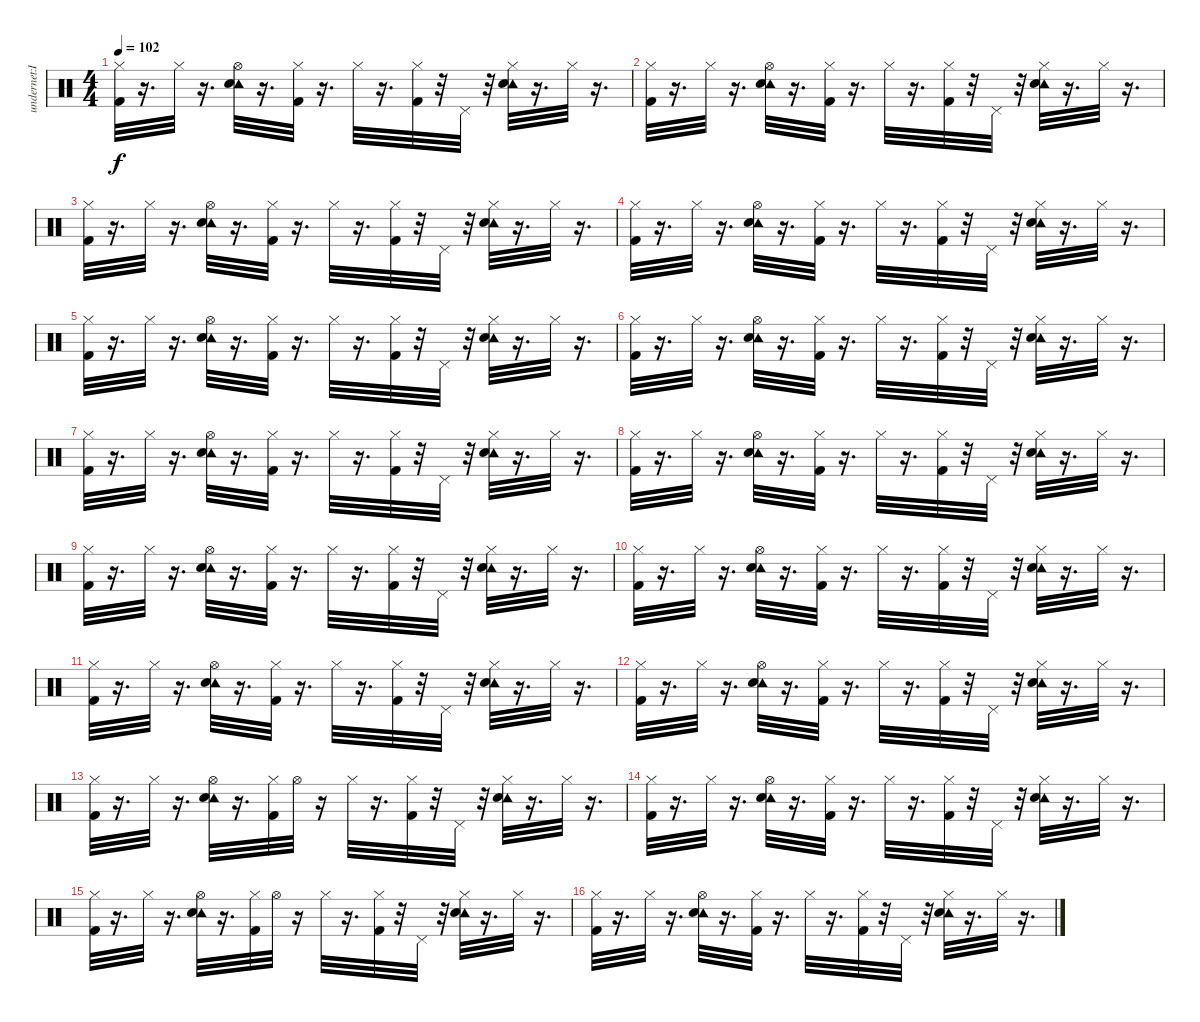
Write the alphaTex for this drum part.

\track ("undernet:IRC:bong21" "undernet:I") {instrument percussion}
\staff {score}
\articulation defaults
\ts (4 4)
\tempo 102
\clef neutral
\ks c
("Hi-Hat (closed)" "Kick (hit) 2").32{dy f} r.16{d} "Hi-Hat (closed)".32 r.16{d} ("Tambourine (hit)" "Hi-Hat (open)" "Electric Snare (hit)").32 r.16{d} ("Hi-Hat (closed)" "Kick (hit) 2").32 r.16{d} "Hi-Hat (closed)".32 r.16{d} ("Hi-Hat (closed)" "Kick (hit) 2").32 r.32 "Pedal Hi-Hat (hit)".32 r.32 ("Tambourine (hit)" "Hi-Hat (closed)" "Electric Snare (hit)").32 r.16{d} "Hi-Hat (closed)".32 r.16{d} |
("Hi-Hat (closed)" "Kick (hit) 2").32 r.16{d} "Hi-Hat (closed)".32 r.16{d} ("Tambourine (hit)" "Hi-Hat (open)" "Electric Snare (hit)").32 r.16{d} ("Hi-Hat (closed)" "Kick (hit) 2").32 r.16{d} "Hi-Hat (closed)".32 r.16{d} ("Hi-Hat (closed)" "Kick (hit) 2").32 r.32 "Pedal Hi-Hat (hit)".32 r.32 ("Tambourine (hit)" "Hi-Hat (closed)" "Electric Snare (hit)").32 r.16{d} "Hi-Hat (closed)".32 r.16{d} |
("Hi-Hat (closed)" "Kick (hit) 2").32 r.16{d} "Hi-Hat (closed)".32 r.16{d} ("Tambourine (hit)" "Hi-Hat (open)" "Electric Snare (hit)").32 r.16{d} ("Hi-Hat (closed)" "Kick (hit) 2").32 r.16{d} "Hi-Hat (closed)".32 r.16{d} ("Hi-Hat (closed)" "Kick (hit) 2").32 r.32 "Pedal Hi-Hat (hit)".32 r.32 ("Tambourine (hit)" "Hi-Hat (closed)" "Electric Snare (hit)").32 r.16{d} "Hi-Hat (closed)".32 r.16{d} |
("Hi-Hat (closed)" "Kick (hit) 2").32 r.16{d} "Hi-Hat (closed)".32 r.16{d} ("Tambourine (hit)" "Hi-Hat (open)" "Electric Snare (hit)").32 r.16{d} ("Hi-Hat (closed)" "Kick (hit) 2").32 r.16{d} "Hi-Hat (closed)".32 r.16{d} ("Hi-Hat (closed)" "Kick (hit) 2").32 r.32 "Pedal Hi-Hat (hit)".32 r.32 ("Tambourine (hit)" "Hi-Hat (closed)" "Electric Snare (hit)").32 r.16{d} "Hi-Hat (closed)".32 r.16{d} |
("Hi-Hat (closed)" "Kick (hit) 2").32 r.16{d} "Hi-Hat (closed)".32 r.16{d} ("Tambourine (hit)" "Hi-Hat (open)" "Electric Snare (hit)").32 r.16{d} ("Hi-Hat (closed)" "Kick (hit) 2").32 r.16{d} "Hi-Hat (closed)".32 r.16{d} ("Hi-Hat (closed)" "Kick (hit) 2").32 r.32 "Pedal Hi-Hat (hit)".32 r.32 ("Tambourine (hit)" "Hi-Hat (closed)" "Electric Snare (hit)").32 r.16{d} "Hi-Hat (closed)".32 r.16{d} |
("Hi-Hat (closed)" "Kick (hit) 2").32 r.16{d} "Hi-Hat (closed)".32 r.16{d} ("Tambourine (hit)" "Hi-Hat (open)" "Electric Snare (hit)").32 r.16{d} ("Hi-Hat (closed)" "Kick (hit) 2").32 r.16{d} "Hi-Hat (closed)".32 r.16{d} ("Hi-Hat (closed)" "Kick (hit) 2").32 r.32 "Pedal Hi-Hat (hit)".32 r.32 ("Tambourine (hit)" "Hi-Hat (closed)" "Electric Snare (hit)").32 r.16{d} "Hi-Hat (closed)".32 r.16{d} |
("Hi-Hat (closed)" "Kick (hit) 2").32 r.16{d} "Hi-Hat (closed)".32 r.16{d} ("Tambourine (hit)" "Hi-Hat (open)" "Electric Snare (hit)").32 r.16{d} ("Hi-Hat (closed)" "Kick (hit) 2").32 r.16{d} "Hi-Hat (closed)".32 r.16{d} ("Hi-Hat (closed)" "Kick (hit) 2").32 r.32 "Pedal Hi-Hat (hit)".32 r.32 ("Tambourine (hit)" "Hi-Hat (closed)" "Electric Snare (hit)").32 r.16{d} "Hi-Hat (closed)".32 r.16{d} |
("Hi-Hat (closed)" "Kick (hit) 2").32 r.16{d} "Hi-Hat (closed)".32 r.16{d} ("Tambourine (hit)" "Hi-Hat (open)" "Electric Snare (hit)").32 r.16{d} ("Hi-Hat (closed)" "Kick (hit) 2").32 r.16{d} "Hi-Hat (closed)".32 r.16{d} ("Hi-Hat (closed)" "Kick (hit) 2").32 r.32 "Pedal Hi-Hat (hit)".32 r.32 ("Tambourine (hit)" "Hi-Hat (closed)" "Electric Snare (hit)").32 r.16{d} "Hi-Hat (closed)".32 r.16{d} |
("Hi-Hat (closed)" "Kick (hit) 2").32 r.16{d} "Hi-Hat (closed)".32 r.16{d} ("Tambourine (hit)" "Hi-Hat (open)" "Electric Snare (hit)").32 r.16{d} ("Hi-Hat (closed)" "Kick (hit) 2").32 r.16{d} "Hi-Hat (closed)".32 r.16{d} ("Hi-Hat (closed)" "Kick (hit) 2").32 r.32 "Pedal Hi-Hat (hit)".32 r.32 ("Tambourine (hit)" "Hi-Hat (closed)" "Electric Snare (hit)").32 r.16{d} "Hi-Hat (closed)".32 r.16{d} |
("Hi-Hat (closed)" "Kick (hit) 2").32 r.16{d} "Hi-Hat (closed)".32 r.16{d} ("Tambourine (hit)" "Hi-Hat (open)" "Electric Snare (hit)").32 r.16{d} ("Hi-Hat (closed)" "Kick (hit) 2").32 r.16{d} "Hi-Hat (closed)".32 r.16{d} ("Hi-Hat (closed)" "Kick (hit) 2").32 r.32 "Pedal Hi-Hat (hit)".32 r.32 ("Tambourine (hit)" "Hi-Hat (closed)" "Electric Snare (hit)").32 r.16{d} "Hi-Hat (closed)".32 r.16{d} |
("Hi-Hat (closed)" "Kick (hit) 2").32 r.16{d} "Hi-Hat (closed)".32 r.16{d} ("Tambourine (hit)" "Hi-Hat (open)" "Electric Snare (hit)").32 r.16{d} ("Hi-Hat (closed)" "Kick (hit) 2").32 r.16{d} "Hi-Hat (closed)".32 r.16{d} ("Hi-Hat (closed)" "Kick (hit) 2").32 r.32 "Pedal Hi-Hat (hit)".32 r.32 ("Tambourine (hit)" "Hi-Hat (closed)" "Electric Snare (hit)").32 r.16{d} "Hi-Hat (closed)".32 r.16{d} |
("Hi-Hat (closed)" "Kick (hit) 2").32 r.16{d} "Hi-Hat (closed)".32 r.16{d} ("Tambourine (hit)" "Hi-Hat (open)" "Electric Snare (hit)").32 r.16{d} ("Hi-Hat (closed)" "Kick (hit) 2").32 r.16{d} "Hi-Hat (closed)".32 r.16{d} ("Hi-Hat (closed)" "Kick (hit) 2").32 r.32 "Pedal Hi-Hat (hit)".32 r.32 ("Tambourine (hit)" "Hi-Hat (closed)" "Electric Snare (hit)").32 r.16{d} "Hi-Hat (closed)".32 r.16{d} |
("Hi-Hat (closed)" "Kick (hit) 2").32 r.16{d} "Hi-Hat (closed)".32 r.16{d} ("Tambourine (hit)" "Hi-Hat (open)" "Electric Snare (hit)").32 r.16{d} ("Hi-Hat (closed)" "Kick (hit) 2").32 "Hi-Hat (open)".32 r.16 "Hi-Hat (closed)".32 r.16{d} ("Hi-Hat (closed)" "Kick (hit) 2").32 r.32 "Pedal Hi-Hat (hit)".32 r.32 ("Tambourine (hit)" "Hi-Hat (closed)" "Electric Snare (hit)").32 r.16{d} "Hi-Hat (closed)".32 r.16{d} |
("Hi-Hat (closed)" "Kick (hit) 2").32 r.16{d} "Hi-Hat (closed)".32 r.16{d} ("Tambourine (hit)" "Hi-Hat (open)" "Electric Snare (hit)").32 r.16{d} ("Hi-Hat (closed)" "Kick (hit) 2").32 r.16{d} "Hi-Hat (closed)".32 r.16{d} ("Hi-Hat (closed)" "Kick (hit) 2").32 r.32 "Pedal Hi-Hat (hit)".32 r.32 ("Tambourine (hit)" "Hi-Hat (closed)" "Electric Snare (hit)").32 r.16{d} "Hi-Hat (closed)".32 r.16{d} |
("Hi-Hat (closed)" "Kick (hit) 2").32 r.16{d} "Hi-Hat (closed)".32 r.16{d} ("Tambourine (hit)" "Hi-Hat (open)" "Electric Snare (hit)").32 r.16{d} ("Hi-Hat (closed)" "Kick (hit) 2").32 "Hi-Hat (open)".32 r.16 "Hi-Hat (closed)".32 r.16{d} ("Hi-Hat (closed)" "Kick (hit) 2").32 r.32 "Pedal Hi-Hat (hit)".32 r.32 ("Tambourine (hit)" "Hi-Hat (closed)" "Electric Snare (hit)").32 r.16{d} "Hi-Hat (closed)".32 r.16{d} |
("Hi-Hat (closed)" "Kick (hit) 2").32 r.16{d} "Hi-Hat (closed)".32 r.16{d} ("Tambourine (hit)" "Hi-Hat (open)" "Electric Snare (hit)").32 r.16{d} ("Hi-Hat (closed)" "Kick (hit) 2").32 r.16{d} "Hi-Hat (closed)".32 r.16{d} ("Hi-Hat (closed)" "Kick (hit) 2").32 r.32 "Pedal Hi-Hat (hit)".32 r.32 ("Tambourine (hit)" "Hi-Hat (closed)" "Electric Snare (hit)").32 r.16{d} "Hi-Hat (closed)".32 r.16{d}
